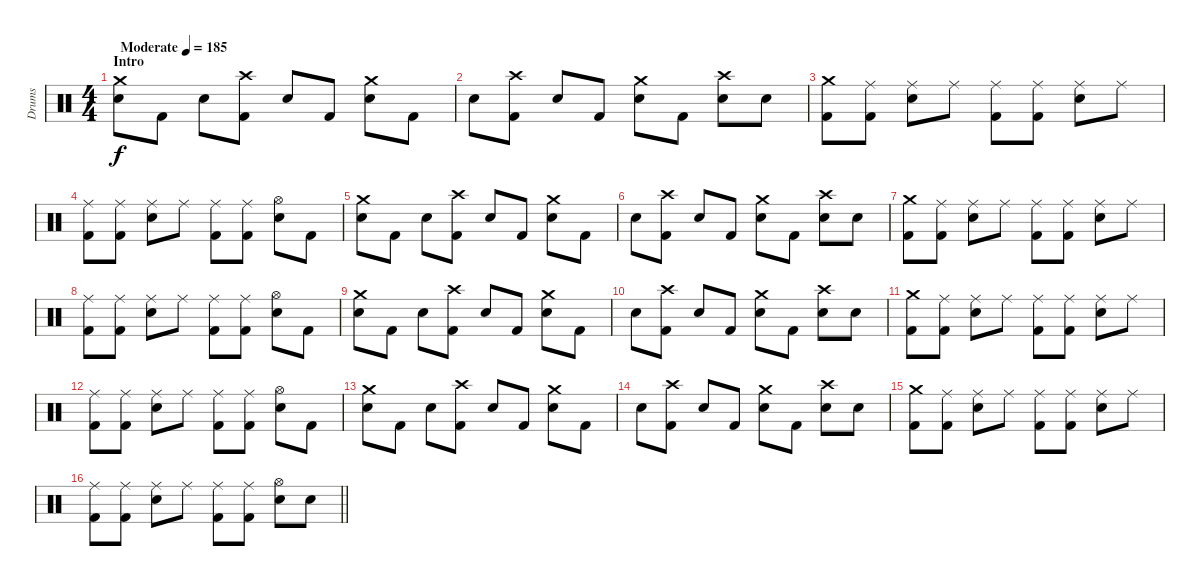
\track ("Drums" "Drums") {instrument percussion}
\staff {score}
\articulation defaults
\ts (4 4)
\section ("" "Intro")
\tempo (185 "Moderate")
\clef neutral
\ks c
("Crash medium (hit)" "Electric Snare (hit)").8{dy f} "Kick (hit) 2".8 "Electric Snare (hit)".8 ("Crash high (hit)" "Kick (hit) 2").8 "Electric Snare (hit)".8 "Kick (hit) 2".8 ("Crash medium (hit)" "Electric Snare (hit)").8 "Kick (hit) 2".8 |
"Electric Snare (hit)".8 ("Crash high (hit)" "Kick (hit) 2").8 "Electric Snare (hit)".8 "Kick (hit) 2".8 ("Crash medium (hit)" "Electric Snare (hit)").8 "Kick (hit) 2".8 ("Crash high (hit)" "Electric Snare (hit)").8 "Electric Snare (hit)".8 |
("Crash medium (hit)" "Kick (hit) 2").8 ("Ride (middle)" "Kick (hit) 2").8 ("Ride (middle)" "Electric Snare (hit)").8 "Ride (middle)".8 ("Ride (middle)" "Kick (hit) 2").8 ("Ride (middle)" "Kick (hit) 2").8 ("Ride (middle)" "Electric Snare (hit)").8 "Ride (middle)".8 |
("Ride (middle)" "Kick (hit) 2").8 ("Ride (middle)" "Kick (hit) 2").8 ("Ride (middle)" "Electric Snare (hit)").8 "Ride (middle)".8 ("Ride (middle)" "Kick (hit) 2").8 ("Ride (middle)" "Kick (hit) 2").8 ("Hi-Hat (open)" "Electric Snare (hit)").8 "Kick (hit) 2".8 |
("Crash medium (hit)" "Electric Snare (hit)").8 "Kick (hit) 2".8 "Electric Snare (hit)".8 ("Crash high (hit)" "Kick (hit) 2").8 "Electric Snare (hit)".8 "Kick (hit) 2".8 ("Crash medium (hit)" "Electric Snare (hit)").8 "Kick (hit) 2".8 |
"Electric Snare (hit)".8 ("Crash high (hit)" "Kick (hit) 2").8 "Electric Snare (hit)".8 "Kick (hit) 2".8 ("Crash medium (hit)" "Electric Snare (hit)").8 "Kick (hit) 2".8 ("Crash high (hit)" "Electric Snare (hit)").8 "Electric Snare (hit)".8 |
("Crash medium (hit)" "Kick (hit) 2").8 ("Ride (middle)" "Kick (hit) 2").8 ("Ride (middle)" "Electric Snare (hit)").8 "Ride (middle)".8 ("Ride (middle)" "Kick (hit) 2").8 ("Ride (middle)" "Kick (hit) 2").8 ("Ride (middle)" "Electric Snare (hit)").8 "Ride (middle)".8 |
("Ride (middle)" "Kick (hit) 2").8 ("Ride (middle)" "Kick (hit) 2").8 ("Ride (middle)" "Electric Snare (hit)").8 "Ride (middle)".8 ("Ride (middle)" "Kick (hit) 2").8 ("Ride (middle)" "Kick (hit) 2").8 ("Hi-Hat (open)" "Electric Snare (hit)").8 "Kick (hit) 2".8 |
("Crash medium (hit)" "Electric Snare (hit)").8 "Kick (hit) 2".8 "Electric Snare (hit)".8 ("Crash high (hit)" "Kick (hit) 2").8 "Electric Snare (hit)".8 "Kick (hit) 2".8 ("Crash medium (hit)" "Electric Snare (hit)").8 "Kick (hit) 2".8 |
"Electric Snare (hit)".8 ("Crash high (hit)" "Kick (hit) 2").8 "Electric Snare (hit)".8 "Kick (hit) 2".8 ("Crash medium (hit)" "Electric Snare (hit)").8 "Kick (hit) 2".8 ("Crash high (hit)" "Electric Snare (hit)").8 "Electric Snare (hit)".8 |
("Crash medium (hit)" "Kick (hit) 2").8 ("Ride (middle)" "Kick (hit) 2").8 ("Ride (middle)" "Electric Snare (hit)").8 "Ride (middle)".8 ("Ride (middle)" "Kick (hit) 2").8 ("Ride (middle)" "Kick (hit) 2").8 ("Ride (middle)" "Electric Snare (hit)").8 "Ride (middle)".8 |
("Ride (middle)" "Kick (hit) 2").8 ("Ride (middle)" "Kick (hit) 2").8 ("Ride (middle)" "Electric Snare (hit)").8 "Ride (middle)".8 ("Ride (middle)" "Kick (hit) 2").8 ("Ride (middle)" "Kick (hit) 2").8 ("Hi-Hat (open)" "Electric Snare (hit)").8 "Kick (hit) 2".8 |
("Crash medium (hit)" "Electric Snare (hit)").8 "Kick (hit) 2".8 "Electric Snare (hit)".8 ("Crash high (hit)" "Kick (hit) 2").8 "Electric Snare (hit)".8 "Kick (hit) 2".8 ("Crash medium (hit)" "Electric Snare (hit)").8 "Kick (hit) 2".8 |
"Electric Snare (hit)".8 ("Crash high (hit)" "Kick (hit) 2").8 "Electric Snare (hit)".8 "Kick (hit) 2".8 ("Crash medium (hit)" "Electric Snare (hit)").8 "Kick (hit) 2".8 ("Crash high (hit)" "Electric Snare (hit)").8 "Electric Snare (hit)".8 |
("Crash medium (hit)" "Kick (hit) 2").8 ("Ride (middle)" "Kick (hit) 2").8 ("Ride (middle)" "Electric Snare (hit)").8 "Ride (middle)".8 ("Ride (middle)" "Kick (hit) 2").8 ("Ride (middle)" "Kick (hit) 2").8 ("Ride (middle)" "Electric Snare (hit)").8 "Ride (middle)".8 |
\barLineRight lightlight
("Ride (middle)" "Kick (hit) 2").8 ("Ride (middle)" "Kick (hit) 2").8 ("Ride (middle)" "Electric Snare (hit)").8 "Ride (middle)".8 ("Ride (middle)" "Kick (hit) 2").8 ("Ride (middle)" "Kick (hit) 2").8 ("Hi-Hat (open)" "Electric Snare (hit)").8 "Electric Snare (hit)".8
